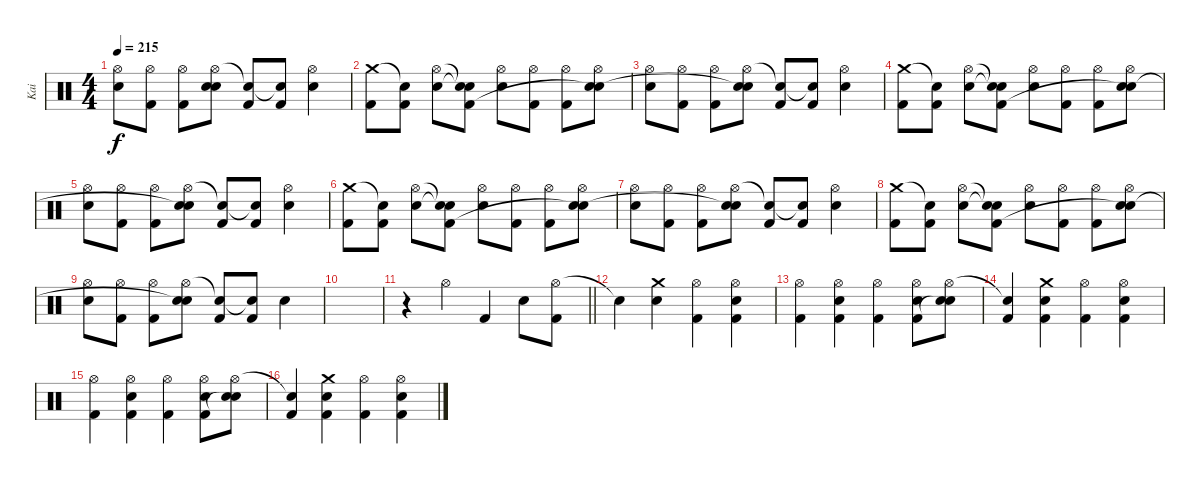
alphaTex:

\track ("Kai" "Kai") {instrument percussion}
\staff {score}
\articulation defaults
\ts (4 4)
\tempo 215
\clef neutral
\ks c
("Hi-Hat (open)" "Snare (hit) 2").8{dy f} ("Hi-Hat (open)" "Kick (hit) 2").8 ("Hi-Hat (open)" "Kick (hit) 2").8 ("Hi-Hat (open)" "Snare (hit) 2" "Snare (hit)"{t}).8 ("Snare (hit)"{t} "Kick (hit) 2").8 ("Snare (hit)"{t} "Kick (hit) 2").8 ("Hi-Hat (open)" "Snare (hit) 2").4 |
("Crash medium (hit)" "Kick (hit) 2").8 ("Snare (hit)"{t} "Kick (hit) 2").8 ("Hi-Hat (open)" "Snare (hit) 2").8 ("Snare (hit)"{t} "Snare (hit)"{t} "Kick (hit) 2").8 ("Hi-Hat (open)" "Snare (hit) 2").8 ("Hi-Hat (open)" "Kick (hit) 2").8 ("Hi-Hat (open)" "Kick (hit) 2").8 ("Hi-Hat (open)" "Snare (hit) 2" "Snare (hit)"{t}).8 |
("Hi-Hat (open)" "Snare (hit) 2").8 ("Hi-Hat (open)" "Kick (hit) 2").8 ("Hi-Hat (open)" "Kick (hit) 2").8 ("Hi-Hat (open)" "Snare (hit) 2" "Snare (hit)"{t}).8 ("Snare (hit)"{t} "Kick (hit) 2").8 ("Snare (hit)"{t} "Kick (hit) 2").8 ("Hi-Hat (open)" "Snare (hit) 2").4 |
("Crash medium (hit)" "Kick (hit) 2").8 ("Snare (hit)"{t} "Kick (hit) 2").8 ("Hi-Hat (open)" "Snare (hit) 2").8 ("Snare (hit)"{t} "Snare (hit)"{t} "Kick (hit) 2").8 ("Hi-Hat (open)" "Snare (hit) 2").8 ("Hi-Hat (open)" "Kick (hit) 2").8 ("Hi-Hat (open)" "Kick (hit) 2").8 ("Hi-Hat (open)" "Snare (hit) 2" "Snare (hit)"{t}).8 |
("Hi-Hat (open)" "Snare (hit) 2").8 ("Hi-Hat (open)" "Kick (hit) 2").8 ("Hi-Hat (open)" "Kick (hit) 2").8 ("Hi-Hat (open)" "Snare (hit) 2" "Snare (hit)"{t}).8 ("Snare (hit)"{t} "Kick (hit) 2").8 ("Snare (hit)"{t} "Kick (hit) 2").8 ("Hi-Hat (open)" "Snare (hit) 2").4 |
("Crash medium (hit)" "Kick (hit) 2").8 ("Snare (hit)"{t} "Kick (hit) 2").8 ("Hi-Hat (open)" "Snare (hit) 2").8 ("Snare (hit)"{t} "Snare (hit)"{t} "Kick (hit) 2").8 ("Hi-Hat (open)" "Snare (hit) 2").8 ("Hi-Hat (open)" "Kick (hit) 2").8 ("Hi-Hat (open)" "Kick (hit) 2").8 ("Hi-Hat (open)" "Snare (hit) 2" "Snare (hit)"{t}).8 |
("Hi-Hat (open)" "Snare (hit) 2").8 ("Hi-Hat (open)" "Kick (hit) 2").8 ("Hi-Hat (open)" "Kick (hit) 2").8 ("Hi-Hat (open)" "Snare (hit) 2" "Snare (hit)"{t}).8 ("Snare (hit)"{t} "Kick (hit) 2").8 ("Snare (hit)"{t} "Kick (hit) 2").8 ("Hi-Hat (open)" "Snare (hit) 2").4 |
("Crash medium (hit)" "Kick (hit) 2").8 ("Snare (hit)"{t} "Kick (hit) 2").8 ("Hi-Hat (open)" "Snare (hit) 2").8 ("Snare (hit)"{t} "Snare (hit)"{t} "Kick (hit) 2").8 ("Hi-Hat (open)" "Snare (hit) 2").8 ("Hi-Hat (open)" "Kick (hit) 2").8 ("Hi-Hat (open)" "Kick (hit) 2").8 ("Hi-Hat (open)" "Snare (hit) 2" "Snare (hit)"{t}).8 |
("Hi-Hat (open)" "Snare (hit) 2").8 ("Hi-Hat (open)" "Kick (hit) 2").8 ("Hi-Hat (open)" "Kick (hit) 2").8 ("Hi-Hat (open)" "Snare (hit) 2" "Snare (hit)"{t}).8 ("Snare (hit)"{t} "Kick (hit) 2").8 ("Snare (hit)"{t} "Kick (hit) 2").8 "Snare (hit) 2".4 |
|
\barLineRight lightlight
r.4 "Hi-Hat (open)".4 "Kick (hit) 2".4 "Snare (hit) 2".8 ("Hi-Hat (open)" "Kick (hit) 2").8 |
"Snare (hit)"{t}.4 ("Crash medium (hit)" "Snare (hit) 2").4 ("Hi-Hat (open)" "Kick (hit) 2").4 ("Hi-Hat (open)" "Snare (hit) 2" "Kick (hit) 2").4 |
("Hi-Hat (open)" "Kick (hit) 2").4 ("Hi-Hat (open)" "Snare (hit) 2" "Kick (hit) 2").4 ("Hi-Hat (open)" "Kick (hit) 2").4 ("Hi-Hat (open)" "Snare (hit) 2" "Kick (hit) 2").8 ("Hi-Hat (open)" "Snare (hit) 2" "Snare (hit)"{t}).8 |
("Snare (hit)"{t} "Kick (hit) 2").4 ("Crash medium (hit)" "Snare (hit) 2" "Kick (hit) 2").4 ("Hi-Hat (open)" "Kick (hit) 2").4 ("Hi-Hat (open)" "Snare (hit) 2" "Kick (hit) 2").4 |
("Hi-Hat (open)" "Kick (hit) 2").4 ("Hi-Hat (open)" "Snare (hit) 2" "Kick (hit) 2").4 ("Hi-Hat (open)" "Kick (hit) 2").4 ("Hi-Hat (open)" "Snare (hit) 2" "Kick (hit) 2").8 ("Hi-Hat (open)" "Snare (hit) 2" "Snare (hit)"{t}).8 |
("Snare (hit)"{t} "Kick (hit) 2").4 ("Crash medium (hit)" "Snare (hit) 2" "Kick (hit) 2").4 ("Hi-Hat (open)" "Kick (hit) 2").4 ("Hi-Hat (open)" "Snare (hit) 2" "Kick (hit) 2").4
